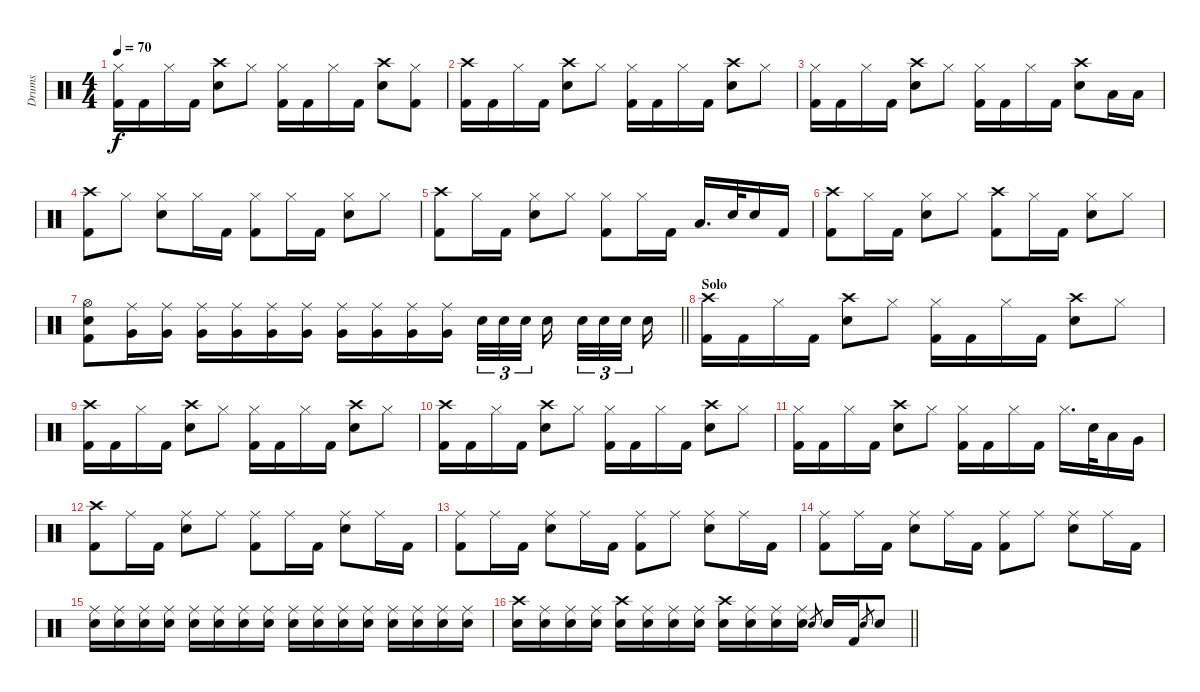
\track ("Drums" "Drums") {instrument percussion}
\staff {score}
\articulation defaults
\ts (4 4)
\tempo 70
\clef neutral
\ks c
("Hi-Hat (closed)" "Kick (hit) 2").16{dy f} "Kick (hit) 2".16 "Hi-Hat (closed)".16 "Kick (hit) 2".16 ("Crash high (hit)" "Snare (hit) 2").8 "Hi-Hat (closed)".8 ("Hi-Hat (closed)" "Kick (hit) 2").16 "Kick (hit) 2".16 "Hi-Hat (closed)".16 "Kick (hit) 2".16 ("Crash high (hit)" "Snare (hit) 2").8 ("Hi-Hat (closed)" "Kick (hit) 2").8 |
("Crash high (hit)" "Kick (hit) 2").16 "Kick (hit) 2".16 "Hi-Hat (closed)".16 "Kick (hit) 2".16 ("Crash high (hit)" "Snare (hit) 2").8 "Hi-Hat (closed)".8 ("Hi-Hat (closed)" "Kick (hit) 2").16 "Kick (hit) 2".16 "Hi-Hat (closed)".16 "Kick (hit) 2".16 ("Crash high (hit)" "Snare (hit) 2").8 "Hi-Hat (closed)".8 |
("Hi-Hat (closed)" "Kick (hit) 2").16 "Kick (hit) 2".16 "Hi-Hat (closed)".16 "Kick (hit) 2".16 ("Crash high (hit)" "Snare (hit) 2").8 "Hi-Hat (closed)".8 ("Hi-Hat (closed)" "Kick (hit) 2").16 "Kick (hit) 2".16 "Hi-Hat (closed)".16 "Kick (hit) 2".16 ("Crash high (hit)" "Snare (hit) 2").8 "Low Tom (hit)".16 "Low Tom (hit)".16 |
("Crash high (hit)" "Kick (hit) 2").8 "Hi-Hat (closed)".8 ("Hi-Hat (closed)" "Snare (hit) 2").8 "Hi-Hat (closed)".16 "Kick (hit) 2".16 ("Hi-Hat (closed)" "Kick (hit) 2").8 "Hi-Hat (closed)".16 "Kick (hit) 2".16 ("Hi-Hat (closed)" "Snare (hit) 2").8 "Hi-Hat (closed)".8 |
("Crash high (hit)" "Kick (hit) 2").8 "Hi-Hat (closed)".16 "Kick (hit) 2".16 ("Hi-Hat (closed)" "Snare (hit) 2").8 "Hi-Hat (closed)".8 ("Hi-Hat (closed)" "Kick (hit) 2").8 "Hi-Hat (closed)".16 "Kick (hit) 2".16 "Low Tom (hit)".16{d} "Snare (hit) 2".32 "Snare (hit) 2".16 "Kick (hit) 2".16 |
("Crash high (hit)" "Kick (hit) 2").8 "Hi-Hat (closed)".16 "Kick (hit) 2".16 ("Hi-Hat (closed)" "Snare (hit) 2").8 "Hi-Hat (closed)".8 ("Crash high (hit)" "Kick (hit) 2").8 "Hi-Hat (closed)".16 "Kick (hit) 2".16 ("Hi-Hat (closed)" "Snare (hit) 2").8 "Hi-Hat (closed)".8 |
\barLineRight lightlight
("Hi-Hat (open)" "Snare (hit) 2" "Kick (hit) 2").8 ("Ride (middle)" "Very Low Tom (hit)").16 ("Ride (middle)" "Very Low Tom (hit)").16 ("Ride (middle)" "Very Low Tom (hit)").16 ("Ride (middle)" "Very Low Tom (hit)").16 ("Ride (middle)" "Very Low Tom (hit)").16 ("Ride (middle)" "Very Low Tom (hit)").16 ("Ride (middle)" "Very Low Tom (hit)").16 ("Ride (middle)" "Very Low Tom (hit)").16 ("Ride (middle)" "Very Low Tom (hit)").16 ("Ride (middle)" "Very Low Tom (hit)").16 "Snare (hit) 2".32{tu (3 2)} "Snare (hit) 2".32{tu (3 2)} "Snare (hit) 2".32{tu (3 2) beam splitsecondary} "Snare (hit) 2".16{beam splitsecondary} "Snare (hit) 2".32{tu (3 2)} "Snare (hit) 2".32{tu (3 2)} "Snare (hit) 2".32{tu (3 2) beam splitsecondary} "Snare (hit) 2".16 |
\section ("" "Solo")
("Crash high (hit)" "Kick (hit) 2").16 "Kick (hit) 2".16 "Hi-Hat (closed)".16 "Kick (hit) 2".16 ("Crash high (hit)" "Snare (hit) 2").8 "Hi-Hat (closed)".8 ("Hi-Hat (closed)" "Kick (hit) 2").16 "Kick (hit) 2".16 "Hi-Hat (closed)".16 "Kick (hit) 2".16 ("Crash high (hit)" "Snare (hit) 2").8 "Hi-Hat (closed)".8 |
("Crash high (hit)" "Kick (hit) 2").16 "Kick (hit) 2".16 "Hi-Hat (closed)".16 "Kick (hit) 2".16 ("Crash high (hit)" "Snare (hit) 2").8 "Hi-Hat (closed)".8 ("Hi-Hat (closed)" "Kick (hit) 2").16 "Kick (hit) 2".16 "Hi-Hat (closed)".16 "Kick (hit) 2".16 ("Crash high (hit)" "Snare (hit) 2").8 "Hi-Hat (closed)".8 |
("Crash high (hit)" "Kick (hit) 2").16 "Kick (hit) 2".16 "Hi-Hat (closed)".16 "Kick (hit) 2".16 ("Crash high (hit)" "Snare (hit) 2").8 "Hi-Hat (closed)".8 ("Hi-Hat (closed)" "Kick (hit) 2").16 "Kick (hit) 2".16 "Hi-Hat (closed)".16 "Kick (hit) 2".16 ("Crash high (hit)" "Snare (hit) 2").8 "Hi-Hat (closed)".8 |
("Hi-Hat (closed)" "Kick (hit) 2").16 "Kick (hit) 2".16 "Hi-Hat (closed)".16 "Kick (hit) 2".16 ("Crash high (hit)" "Snare (hit) 2").8 "Hi-Hat (closed)".8 ("Hi-Hat (closed)" "Kick (hit) 2").16 "Kick (hit) 2".16 "Hi-Hat (closed)".16 "Kick (hit) 2".16 "Hi-Hat (closed)".16{d} "Snare (hit) 2".32 "Low Tom (hit)".16 "Very Low Tom (hit)".16 |
("Crash high (hit)" "Kick (hit) 2").8 "Ride (middle)".16 "Kick (hit) 2".16 ("Ride (middle)" "Snare (hit) 2").8 "Ride (middle)".8 ("Ride (middle)" "Kick (hit) 2").8 "Ride (middle)".16 "Kick (hit) 2".16 ("Ride (middle)" "Snare (hit) 2").8 "Ride (middle)".16 "Kick (hit) 2".16 |
("Ride (middle)" "Kick (hit) 2").8 "Ride (middle)".16 "Kick (hit) 2".16 ("Ride (middle)" "Snare (hit) 2").8 "Ride (middle)".16 "Kick (hit) 2".16 ("Ride (middle)" "Kick (hit) 2").8 "Ride (middle)".8 ("Ride (middle)" "Snare (hit) 2").8 "Ride (middle)".16 "Kick (hit) 2".16 |
("Ride (middle)" "Kick (hit) 2").8 "Ride (middle)".16 "Kick (hit) 2".16 ("Ride (middle)" "Snare (hit) 2").8 "Ride (middle)".16 "Kick (hit) 2".16 ("Ride (middle)" "Kick (hit) 2").8 "Ride (middle)".8 ("Ride (middle)" "Snare (hit) 2").8 "Ride (middle)".16 "Kick (hit) 2".16 |
("Ride (middle)" "Snare (hit) 2").16 ("Ride (middle)" "Snare (hit) 2").16 ("Ride (middle)" "Snare (hit) 2").16 ("Ride (middle)" "Snare (hit) 2").16 ("Ride (middle)" "Snare (hit) 2").16 ("Ride (middle)" "Snare (hit) 2").16 ("Ride (middle)" "Snare (hit) 2").16 ("Ride (middle)" "Snare (hit) 2").16 ("Ride (middle)" "Snare (hit) 2").16 ("Ride (middle)" "Snare (hit) 2").16 ("Ride (middle)" "Snare (hit) 2").16 ("Ride (middle)" "Snare (hit) 2").16 ("Ride (middle)" "Snare (hit) 2").16 ("Ride (middle)" "Snare (hit) 2").16 ("Ride (middle)" "Snare (hit) 2").16 ("Ride (middle)" "Snare (hit) 2").16 |
\barLineRight lightlight
("Crash high (hit)" "Snare (hit) 2").16 ("Ride (middle)" "Snare (hit) 2").16 ("Ride (middle)" "Snare (hit) 2").16 ("Ride (middle)" "Snare (hit) 2").16 ("Crash high (hit)" "Snare (hit) 2").16 ("Ride (middle)" "Snare (hit) 2").16 ("Ride (middle)" "Snare (hit) 2").16 ("Ride (middle)" "Snare (hit) 2").16 ("Crash high (hit)" "Snare (hit) 2").16 ("Ride (middle)" "Snare (hit) 2").16 ("Ride (middle)" "Snare (hit) 2").16 ("Ride (middle)" "Snare (hit) 2").16 "Snare (hit) 2".8{gr} "Snare (hit) 2".16 "Kick (hit) 2".16 "Snare (hit) 2".8{gr} "Snare (hit) 2".8
